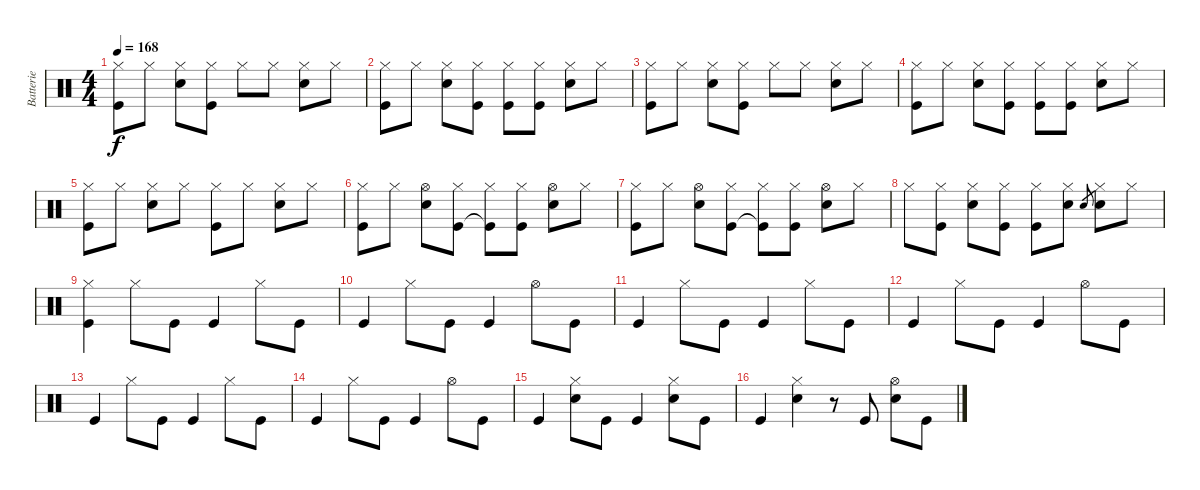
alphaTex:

\track ("Batterie" "Batterie") {instrument percussion}
\staff {score}
\articulation defaults
\ts (4 4)
\tempo 168
\clef neutral
\ks c
("Hi-Hat (closed)" "Kick (hit)").8{dy f} "Hi-Hat (closed)".8 ("Hi-Hat (closed)" "Snare (hit) 2").8 ("Hi-Hat (closed)" "Kick (hit)").8 "Hi-Hat (closed)".8 "Hi-Hat (closed)".8 ("Hi-Hat (closed)" "Snare (hit) 2").8 "Hi-Hat (closed)".8 |
("Hi-Hat (closed)" "Kick (hit)").8 "Hi-Hat (closed)".8 ("Hi-Hat (closed)" "Snare (hit) 2").8 ("Hi-Hat (closed)" "Kick (hit)").8 ("Hi-Hat (closed)" "Kick (hit)").8 ("Hi-Hat (closed)" "Kick (hit)").8 ("Hi-Hat (closed)" "Snare (hit) 2").8 "Hi-Hat (closed)".8 |
("Hi-Hat (closed)" "Kick (hit)").8 "Hi-Hat (closed)".8 ("Hi-Hat (closed)" "Snare (hit) 2").8 ("Hi-Hat (closed)" "Kick (hit)").8 "Hi-Hat (closed)".8 "Hi-Hat (closed)".8 ("Hi-Hat (closed)" "Snare (hit) 2").8 "Hi-Hat (closed)".8 |
("Hi-Hat (closed)" "Kick (hit)").8 "Hi-Hat (closed)".8 ("Hi-Hat (closed)" "Snare (hit) 2").8 ("Hi-Hat (closed)" "Kick (hit)").8 ("Hi-Hat (closed)" "Kick (hit)").8 ("Hi-Hat (closed)" "Kick (hit)").8 ("Hi-Hat (closed)" "Snare (hit) 2").8 "Hi-Hat (closed)".8 |
("Hi-Hat (closed)" "Kick (hit)").8 "Hi-Hat (closed)".8 ("Hi-Hat (closed)" "Snare (hit) 2").8 "Hi-Hat (closed)".8 ("Hi-Hat (closed)" "Kick (hit)").8 "Hi-Hat (closed)".8 ("Hi-Hat (closed)" "Snare (hit) 2").8 "Hi-Hat (closed)".8 |
("Hi-Hat (closed)" "Kick (hit)").8 "Hi-Hat (closed)".8 ("Hi-Hat (open)" "Snare (hit) 2").8 ("Hi-Hat (closed)" "Kick (hit)").8 ("Hi-Hat (closed)" "Kick (hit)"{t}).8 ("Hi-Hat (closed)" "Kick (hit)").8 ("Hi-Hat (open)" "Snare (hit) 2").8 "Hi-Hat (closed)".8 |
("Hi-Hat (closed)" "Kick (hit)").8 "Hi-Hat (closed)".8 ("Hi-Hat (open)" "Snare (hit) 2").8 ("Hi-Hat (closed)" "Kick (hit)").8 ("Hi-Hat (closed)" "Kick (hit)"{t}).8 ("Hi-Hat (closed)" "Kick (hit)").8 ("Hi-Hat (open)" "Snare (hit) 2").8 "Hi-Hat (closed)".8 |
"Hi-Hat (closed)".8 ("Hi-Hat (closed)" "Kick (hit)").8 ("Hi-Hat (closed)" "Snare (hit) 2").8 ("Hi-Hat (closed)" "Kick (hit)").8 ("Hi-Hat (closed)" "Kick (hit)").8 ("Hi-Hat (closed)" "Snare (hit) 2").8 "Snare (hit) 2".8{gr} ("Hi-Hat (closed)" "Snare (hit) 2").8 "Hi-Hat (closed)".8 |
("Hi-Hat (closed)" "Kick (hit)").4 "Hi-Hat (closed)".8 "Kick (hit)".8 "Kick (hit)".4 "Hi-Hat (closed)".8 "Kick (hit)".8 |
"Kick (hit)".4 "Hi-Hat (closed)".8 "Kick (hit)".8 "Kick (hit)".4 "Hi-Hat (open)".8 "Kick (hit)".8 |
"Kick (hit)".4 "Hi-Hat (closed)".8 "Kick (hit)".8 "Kick (hit)".4 "Hi-Hat (closed)".8 "Kick (hit)".8 |
"Kick (hit)".4 "Hi-Hat (closed)".8 "Kick (hit)".8 "Kick (hit)".4 "Hi-Hat (open)".8 "Kick (hit)".8 |
"Kick (hit)".4 "Hi-Hat (closed)".8 "Kick (hit)".8 "Kick (hit)".4 "Hi-Hat (closed)".8 "Kick (hit)".8 |
"Kick (hit)".4 "Hi-Hat (closed)".8 "Kick (hit)".8 "Kick (hit)".4 "Hi-Hat (open)".8 "Kick (hit)".8 |
"Kick (hit)".4 ("Hi-Hat (closed)" "Snare (hit) 2").8 "Kick (hit)".8 "Kick (hit)".4 ("Hi-Hat (closed)" "Snare (hit) 2").8 "Kick (hit)".8 |
"Kick (hit)".4 ("Hi-Hat (closed)" "Snare (hit) 2").4 r.8 "Kick (hit)".8 ("Hi-Hat (open)" "Snare (hit) 2").8 "Kick (hit)".8
